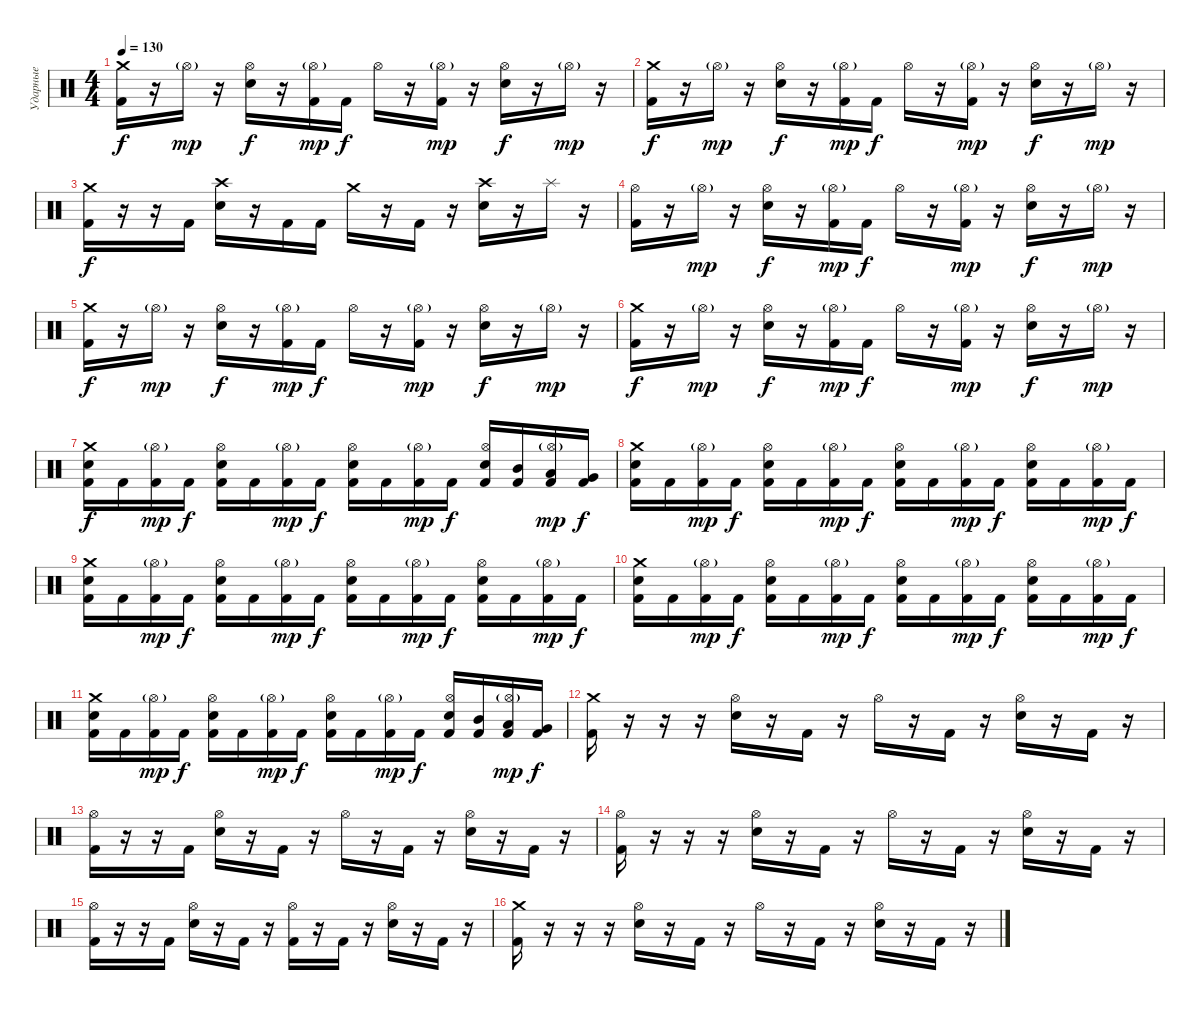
\track ("Ударные" "Ударные") {instrument percussion}
\staff {score}
\articulation defaults
\ts (4 4)
\tempo 130
\clef neutral
\ks c
("Crash medium (hit)" "Kick (hit) 2").16{dy f} r.16 "Hi-Hat (open)"{g}.16{dy mp} r.16 ("Hi-Hat (open)" "Snare (hit) 2").16{dy f} r.16 ("Hi-Hat (open)"{g} "Kick (hit) 2").16{dy mp} "Kick (hit) 2".16{dy f} "Hi-Hat (open)".16 r.16 ("Hi-Hat (open)"{g} "Kick (hit) 2").16{dy mp} r.16 ("Hi-Hat (open)" "Snare (hit) 2").16{dy f} r.16 "Hi-Hat (open)"{g}.16{dy mp} r.16 |
("Crash medium (hit)" "Kick (hit) 2").16{dy f} r.16 "Hi-Hat (open)"{g}.16{dy mp} r.16 ("Hi-Hat (open)" "Snare (hit) 2").16{dy f} r.16 ("Hi-Hat (open)"{g} "Kick (hit) 2").16{dy mp} "Kick (hit) 2".16{dy f} "Hi-Hat (open)".16 r.16 ("Hi-Hat (open)"{g} "Kick (hit) 2").16{dy mp} r.16 ("Hi-Hat (open)" "Snare (hit) 2").16{dy f} r.16 "Hi-Hat (open)"{g}.16{dy mp} r.16 |
("Crash medium (hit)" "Kick (hit) 2").16{dy f} r.16 r.16 "Kick (hit) 2".16 ("Crash high (hit)" "Snare (hit) 2").16 r.16 "Kick (hit) 2".16 "Kick (hit) 2".16 "Crash medium (hit)".16 r.16 "Kick (hit) 2".16 r.16 ("Crash high (hit)" "Snare (hit) 2").16 r.16 "Splash (hit)".16 r.16 |
("Hi-Hat (open)" "Kick (hit) 2").16 r.16 "Hi-Hat (open)"{g}.16{dy mp} r.16 ("Hi-Hat (open)" "Snare (hit) 2").16{dy f} r.16 ("Hi-Hat (open)"{g} "Kick (hit) 2").16{dy mp} "Kick (hit) 2".16{dy f} "Hi-Hat (open)".16 r.16 ("Hi-Hat (open)"{g} "Kick (hit) 2").16{dy mp} r.16 ("Hi-Hat (open)" "Snare (hit) 2").16{dy f} r.16 "Hi-Hat (open)"{g}.16{dy mp} r.16 |
("Crash medium (hit)" "Kick (hit) 2").16{dy f} r.16 "Hi-Hat (open)"{g}.16{dy mp} r.16 ("Hi-Hat (open)" "Snare (hit) 2").16{dy f} r.16 ("Hi-Hat (open)"{g} "Kick (hit) 2").16{dy mp} "Kick (hit) 2".16{dy f} "Hi-Hat (open)".16 r.16 ("Hi-Hat (open)"{g} "Kick (hit) 2").16{dy mp} r.16 ("Hi-Hat (open)" "Snare (hit) 2").16{dy f} r.16 "Hi-Hat (open)"{g}.16{dy mp} r.16 |
("Crash medium (hit)" "Kick (hit) 2").16{dy f} r.16 "Hi-Hat (open)"{g}.16{dy mp} r.16 ("Hi-Hat (open)" "Snare (hit) 2").16{dy f} r.16 ("Hi-Hat (open)"{g} "Kick (hit) 2").16{dy mp} "Kick (hit) 2".16{dy f} "Hi-Hat (open)".16 r.16 ("Hi-Hat (open)"{g} "Kick (hit) 2").16{dy mp} r.16 ("Hi-Hat (open)" "Snare (hit) 2").16{dy f} r.16 "Hi-Hat (open)"{g}.16{dy mp} r.16 |
("Crash medium (hit)" "Snare (hit) 2" "Kick (hit) 2").16{dy f} "Kick (hit) 2".16 ("Hi-Hat (open)"{g} "Kick (hit) 2").16{dy mp} "Kick (hit) 2".16{dy f} ("Hi-Hat (open)" "Snare (hit) 2" "Kick (hit) 2").16 "Kick (hit) 2".16 ("Hi-Hat (open)"{g} "Kick (hit) 2").16{dy mp} "Kick (hit) 2".16{dy f} ("Hi-Hat (open)" "Snare (hit) 2" "Kick (hit) 2").16 "Kick (hit) 2".16 ("Hi-Hat (open)"{g} "Kick (hit) 2").16{dy mp} "Kick (hit) 2".16{dy f} ("Hi-Hat (open)" "Snare (hit) 2" "Kick (hit) 2").16 ("Mid Tom (hit)" "Kick (hit) 2").16 ("Hi-Hat (open)"{g} "Low Tom (hit)" "Kick (hit) 2").16{dy mp} ("Very Low Tom (hit)" "Kick (hit) 2").16{dy f} |
("Crash medium (hit)" "Snare (hit) 2" "Kick (hit) 2").16 "Kick (hit) 2".16 ("Hi-Hat (open)"{g} "Kick (hit) 2").16{dy mp} "Kick (hit) 2".16{dy f} ("Hi-Hat (open)" "Snare (hit) 2" "Kick (hit) 2").16 "Kick (hit) 2".16 ("Hi-Hat (open)"{g} "Kick (hit) 2").16{dy mp} "Kick (hit) 2".16{dy f} ("Hi-Hat (open)" "Snare (hit) 2" "Kick (hit) 2").16 "Kick (hit) 2".16 ("Hi-Hat (open)"{g} "Kick (hit) 2").16{dy mp} "Kick (hit) 2".16{dy f} ("Hi-Hat (open)" "Snare (hit) 2" "Kick (hit) 2").16 "Kick (hit) 2".16 ("Hi-Hat (open)"{g} "Kick (hit) 2").16{dy mp} "Kick (hit) 2".16{dy f} |
("Crash medium (hit)" "Snare (hit) 2" "Kick (hit) 2").16 "Kick (hit) 2".16 ("Hi-Hat (open)"{g} "Kick (hit) 2").16{dy mp} "Kick (hit) 2".16{dy f} ("Hi-Hat (open)" "Snare (hit) 2" "Kick (hit) 2").16 "Kick (hit) 2".16 ("Hi-Hat (open)"{g} "Kick (hit) 2").16{dy mp} "Kick (hit) 2".16{dy f} ("Hi-Hat (open)" "Snare (hit) 2" "Kick (hit) 2").16 "Kick (hit) 2".16 ("Hi-Hat (open)"{g} "Kick (hit) 2").16{dy mp} "Kick (hit) 2".16{dy f} ("Hi-Hat (open)" "Snare (hit) 2" "Kick (hit) 2").16 "Kick (hit) 2".16 ("Hi-Hat (open)"{g} "Kick (hit) 2").16{dy mp} "Kick (hit) 2".16{dy f} |
("Crash medium (hit)" "Snare (hit) 2" "Kick (hit) 2").16 "Kick (hit) 2".16 ("Hi-Hat (open)"{g} "Kick (hit) 2").16{dy mp} "Kick (hit) 2".16{dy f} ("Hi-Hat (open)" "Snare (hit) 2" "Kick (hit) 2").16 "Kick (hit) 2".16 ("Hi-Hat (open)"{g} "Kick (hit) 2").16{dy mp} "Kick (hit) 2".16{dy f} ("Hi-Hat (open)" "Snare (hit) 2" "Kick (hit) 2").16 "Kick (hit) 2".16 ("Hi-Hat (open)"{g} "Kick (hit) 2").16{dy mp} "Kick (hit) 2".16{dy f} ("Hi-Hat (open)" "Snare (hit) 2" "Kick (hit) 2").16 "Kick (hit) 2".16 ("Hi-Hat (open)"{g} "Kick (hit) 2").16{dy mp} "Kick (hit) 2".16{dy f} |
("Crash medium (hit)" "Snare (hit) 2" "Kick (hit) 2").16 "Kick (hit) 2".16 ("Hi-Hat (open)"{g} "Kick (hit) 2").16{dy mp} "Kick (hit) 2".16{dy f} ("Hi-Hat (open)" "Snare (hit) 2" "Kick (hit) 2").16 "Kick (hit) 2".16 ("Hi-Hat (open)"{g} "Kick (hit) 2").16{dy mp} "Kick (hit) 2".16{dy f} ("Hi-Hat (open)" "Snare (hit) 2" "Kick (hit) 2").16 "Kick (hit) 2".16 ("Hi-Hat (open)"{g} "Kick (hit) 2").16{dy mp} "Kick (hit) 2".16{dy f} ("Hi-Hat (open)" "Snare (hit) 2" "Kick (hit) 2").16 ("Mid Tom (hit)" "Kick (hit) 2").16 ("Hi-Hat (open)"{g} "Low Tom (hit)" "Kick (hit) 2").16{dy mp} ("Very Low Tom (hit)" "Kick (hit) 2").16{dy f} |
("Crash medium (hit)" "Kick (hit) 2").16 r.16 r.16 r.16 ("Hi-Hat (open)" "Snare (hit) 2").16 r.16 "Kick (hit) 2".16 r.16 "Hi-Hat (open)".16 r.16 "Kick (hit) 2".16 r.16 ("Hi-Hat (open)" "Snare (hit) 2").16 r.16 "Kick (hit) 2".16 r.16 |
("Hi-Hat (open)" "Kick (hit) 2").16 r.16 r.16 "Kick (hit) 2".16 ("Hi-Hat (open)" "Snare (hit) 2").16 r.16 "Kick (hit) 2".16 r.16 "Hi-Hat (open)".16 r.16 "Kick (hit) 2".16 r.16 ("Hi-Hat (open)" "Snare (hit) 2").16 r.16 "Kick (hit) 2".16 r.16 |
("Hi-Hat (open)" "Kick (hit) 2").16 r.16 r.16 r.16 ("Hi-Hat (open)" "Snare (hit) 2").16 r.16 "Kick (hit) 2".16 r.16 "Hi-Hat (open)".16 r.16 "Kick (hit) 2".16 r.16 ("Hi-Hat (open)" "Snare (hit) 2").16 r.16 "Kick (hit) 2".16 r.16 |
("Hi-Hat (open)" "Kick (hit) 2").16 r.16 r.16 "Kick (hit) 2".16 ("Hi-Hat (open)" "Snare (hit) 2").16 r.16 "Kick (hit) 2".16 r.16 ("Hi-Hat (open)" "Kick (hit) 2").16 r.16 "Kick (hit) 2".16 r.16 ("Hi-Hat (open)" "Snare (hit) 2").16 r.16 "Kick (hit) 2".16 r.16 |
("Crash medium (hit)" "Kick (hit) 2").16 r.16 r.16 r.16 ("Hi-Hat (open)" "Snare (hit) 2").16 r.16 "Kick (hit) 2".16 r.16 "Hi-Hat (open)".16 r.16 "Kick (hit) 2".16 r.16 ("Hi-Hat (open)" "Snare (hit) 2").16 r.16 "Kick (hit) 2".16 r.16
